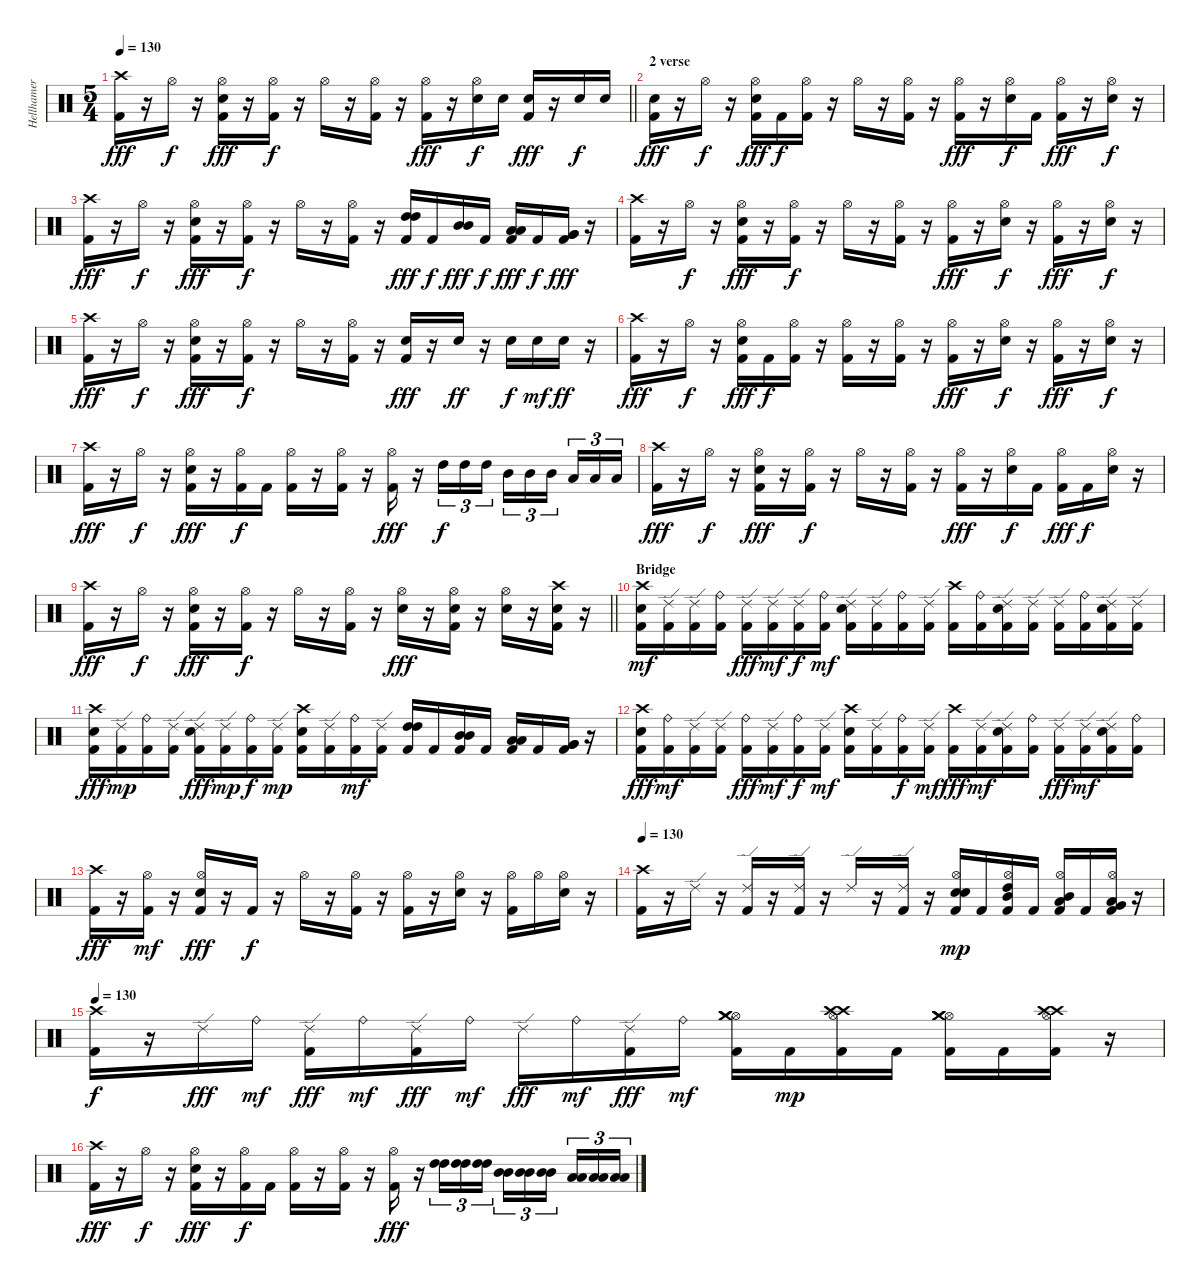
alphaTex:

\track ("Hellhamer" "Hellhamer") {instrument percussion}
\staff {score}
\articulation defaults
\ts (5 4)
\tempo 130
\clef neutral
\barLineRight lightlight
\ks c
("Crash high (hit)" "Kick (hit) 2").16{dy fff} r.16 "Hi-Hat (open)".16{dy f} r.16 ("Hi-Hat (open)" "Electric Snare (hit)" "Kick (hit) 2").16{dy fff} r.16 ("Hi-Hat (open)" "Kick (hit) 2").16{dy f} r.16 "Hi-Hat (open)".16 r.16 ("Hi-Hat (open)" "Kick (hit) 2").16 r.16 ("Hi-Hat (open)" "Kick (hit) 2").16{dy fff} r.16 ("Hi-Hat (open)" "Electric Snare (hit)").16{dy f} "Electric Snare (hit)".16 ("Electric Snare (hit)" "Kick (hit) 2").16{dy fff} r.16 "Electric Snare (hit)".16{dy f} "Electric Snare (hit)".16 |
\section ("" "2 verse")
("Electric Snare (hit)" "Kick (hit) 2").16{dy fff} r.16 "Hi-Hat (open)".16{dy f} r.16 ("Hi-Hat (open)" "Electric Snare (hit)" "Kick (hit) 2").16{dy fff} "Kick (hit) 2".16{dy f} ("Hi-Hat (open)" "Kick (hit) 2").16 r.16 "Hi-Hat (open)".16 r.16 ("Hi-Hat (open)" "Kick (hit) 2").16 r.16 ("Hi-Hat (open)" "Kick (hit) 2").16{dy fff} r.16 ("Hi-Hat (open)" "Electric Snare (hit)").16{dy f} "Kick (hit) 2".16 ("Hi-Hat (open)" "Kick (hit) 2").16{dy fff} r.16 ("Hi-Hat (open)" "Electric Snare (hit)").16{dy f} r.16 |
("Crash high (hit)" "Kick (hit) 2").16{dy fff} r.16 "Hi-Hat (open)".16{dy f} r.16 ("Hi-Hat (open)" "Electric Snare (hit)" "Kick (hit) 2").16{dy fff} r.16 ("Hi-Hat (open)" "Kick (hit) 2").16{dy f} r.16 "Hi-Hat (open)".16 r.16 ("Hi-Hat (open)" "Kick (hit) 2").16 r.16 ("High Tom (hit)" "High Tom (hit)" "Kick (hit) 2").16{dy fff} "Kick (hit) 2".16{dy f} ("Mid Tom (hit)" "Mid Tom (hit)").16{dy fff} "Kick (hit) 2".16{dy f} ("Low Tom (hit)" "Low Tom (hit)" "Kick (hit) 2").16{dy fff} "Kick (hit) 2".16{dy f} ("Very Low Tom (hit)" "Very Low Tom (hit)" "Kick (hit) 2").16{dy fff} r.16 |
("Crash high (hit)" "Kick (hit) 2").16 r.16 "Hi-Hat (open)".16{dy f} r.16 ("Hi-Hat (open)" "Electric Snare (hit)" "Kick (hit) 2").16{dy fff} r.16 ("Hi-Hat (open)" "Kick (hit) 2").16{dy f} r.16 "Hi-Hat (open)".16 r.16 ("Hi-Hat (open)" "Kick (hit) 2").16 r.16 ("Hi-Hat (open)" "Kick (hit) 2").16{dy fff} r.16 ("Hi-Hat (open)" "Electric Snare (hit)").16{dy f} r.16 ("Hi-Hat (open)" "Kick (hit) 2").16{dy fff} r.16 ("Hi-Hat (open)" "Electric Snare (hit)").16{dy f} r.16 |
("Crash high (hit)" "Kick (hit) 2").16{dy fff} r.16 "Hi-Hat (open)".16{dy f} r.16 ("Hi-Hat (open)" "Electric Snare (hit)" "Kick (hit) 2").16{dy fff} r.16 ("Hi-Hat (open)" "Kick (hit) 2").16{dy f} r.16 "Hi-Hat (open)".16 r.16 ("Hi-Hat (open)" "Kick (hit) 2").16 r.16 ("Electric Snare (hit)" "Kick (hit) 2").16{dy fff} r.16 "Electric Snare (hit)".16{dy ff} r.16 "Electric Snare (hit)".16{dy f} "Electric Snare (hit)".16{dy mf} "Electric Snare (hit)".16{dy ff} r.16 |
("Crash high (hit)" "Kick (hit) 2").16{dy fff} r.16 "Hi-Hat (open)".16{dy f} r.16 ("Hi-Hat (open)" "Electric Snare (hit)" "Kick (hit) 2").16{dy fff} "Kick (hit) 2".16{dy f} ("Hi-Hat (open)" "Kick (hit) 2").16 r.16 ("Hi-Hat (open)" "Kick (hit) 2").16 r.16 ("Hi-Hat (open)" "Kick (hit) 2").16 r.16 ("Hi-Hat (open)" "Kick (hit) 2").16{dy fff} r.16 ("Hi-Hat (open)" "Electric Snare (hit)").16{dy f} r.16 ("Hi-Hat (open)" "Kick (hit) 2").16{dy fff} r.16 ("Hi-Hat (open)" "Electric Snare (hit)").16{dy f} r.16 |
("Crash high (hit)" "Kick (hit) 2").16{dy fff} r.16 "Hi-Hat (open)".16{dy f} r.16 ("Hi-Hat (open)" "Electric Snare (hit)" "Kick (hit) 2").16{dy fff} r.16 ("Hi-Hat (open)" "Kick (hit) 2").16{dy f} "Kick (hit) 2".16 ("Hi-Hat (open)" "Kick (hit) 2").16 r.16 ("Hi-Hat (open)" "Kick (hit) 2").16 r.16 ("Hi-Hat (open)" "Kick (hit) 2").16{dy fff} r.16 "High Tom (hit)".16{tu (3 2) dy f} "High Tom (hit)".16{tu (3 2)} "High Tom (hit)".16{tu (3 2)} "Mid Tom (hit)".16{tu (3 2)} "Mid Tom (hit)".16{tu (3 2)} "Mid Tom (hit)".16{tu (3 2) beam splitsecondary} "Low Tom (hit)".16{tu (3 2)} "Low Tom (hit)".16{tu (3 2)} "Low Tom (hit)".16{tu (3 2)} |
("Crash high (hit)" "Kick (hit) 2").16{dy fff} r.16 "Hi-Hat (open)".16{dy f} r.16 ("Hi-Hat (open)" "Electric Snare (hit)" "Kick (hit) 2").16{dy fff} r.16 ("Hi-Hat (open)" "Kick (hit) 2").16{dy f} r.16 "Hi-Hat (open)".16 r.16 ("Hi-Hat (open)" "Kick (hit) 2").16 r.16 ("Hi-Hat (open)" "Kick (hit) 2").16{dy fff} r.16 ("Hi-Hat (open)" "Electric Snare (hit)").16{dy f} "Kick (hit) 2".16 ("Hi-Hat (open)" "Kick (hit) 2").16{dy fff} "Kick (hit) 2".16{dy f} ("Hi-Hat (open)" "Electric Snare (hit)").16 r.16 |
\barLineRight lightlight
("Crash high (hit)" "Kick (hit) 2").16{dy fff} r.16 "Hi-Hat (open)".16{dy f} r.16 ("Hi-Hat (open)" "Electric Snare (hit)" "Kick (hit) 2").16{dy fff} r.16 ("Hi-Hat (open)" "Kick (hit) 2").16{dy f} r.16 "Hi-Hat (open)".16 r.16 ("Hi-Hat (open)" "Kick (hit) 2").16 r.16 ("Hi-Hat (open)" "Electric Snare (hit)").16{dy fff} r.16 ("Hi-Hat (open)" "Electric Snare (hit)" "Kick (hit) 2").16 r.16 ("Hi-Hat (open)" "Electric Snare (hit)").16 r.16 ("Crash high (hit)" "Electric Snare (hit)" "Kick (hit) 2").16 r.16 |
\section ("" "Bridge")
("Crash high (hit)" "Electric Snare (hit)" "Kick (hit) 2").16{dy mf} ("Ride (edge) 2" "Kick (hit) 2").16 ("Ride (edge) 2" "Kick (hit) 2").16 ("Ride (bell)" "Kick (hit) 2").16 ("Ride (edge) 2" "Kick (hit) 2").16{dy fff} ("Ride (edge) 2" "Kick (hit) 2").16{dy mf} ("Ride (edge) 2" "Kick (hit) 2").16{dy f} ("Ride (bell)" "Kick (hit) 2").16{dy mf} ("Ride (edge) 2" "Electric Snare (hit)" "Kick (hit) 2").16 ("Ride (edge) 2" "Kick (hit) 2").16 ("Ride (bell)" "Kick (hit) 2").16 ("Ride (edge) 2" "Kick (hit) 2").16 ("Crash high (hit)" "Kick (hit) 2").16 ("Ride (bell)" "Kick (hit) 2").16 ("Ride (edge) 2" "Electric Snare (hit)" "Kick (hit) 2").16 ("Ride (edge) 2" "Kick (hit) 2").16 ("Ride (edge) 2" "Kick (hit) 2").16 ("Ride (bell)" "Kick (hit) 2").16 ("Ride (edge) 2" "Electric Snare (hit)" "Kick (hit) 2").16 ("Ride (edge) 2" "Kick (hit) 2").16 |
("Crash high (hit)" "Electric Snare (hit)" "Kick (hit) 2").16{dy fff} ("Ride (edge) 2" "Kick (hit) 2").16{dy mp} ("Ride (bell)" "Kick (hit) 2").16 ("Ride (edge) 2" "Kick (hit) 2").16 ("Ride (edge) 2" "Electric Snare (hit)" "Kick (hit) 2").16{dy fff} ("Ride (edge) 2" "Kick (hit) 2").16{dy mp} ("Ride (bell)" "Kick (hit) 2").16{dy f} ("Ride (edge) 2" "Kick (hit) 2").16{dy mp} ("Crash high (hit)" "Electric Snare (hit)" "Kick (hit) 2").16 ("Ride (edge) 2" "Kick (hit) 2").16 ("Ride (bell)" "Kick (hit) 2").16{dy mf} ("Ride (edge) 2" "Kick (hit) 2").16 ("High Tom (hit)" "High Tom (hit)" "Kick (hit) 2").16 "Kick (hit) 2".16 ("Mid Tom (hit)" "Mid Tom (hit)" "Kick (hit) 2").16 "Kick (hit) 2".16 ("Low Tom (hit)" "Low Tom (hit)" "Kick (hit) 2").16 "Kick (hit) 2".16 ("Very Low Tom (hit)" "Very Low Tom (hit)" "Kick (hit) 2").16 r.16 |
("Crash high (hit)" "Electric Snare (hit)" "Kick (hit) 2").16{dy fff} ("Ride (bell)" "Kick (hit) 2").16{dy mf} ("Ride (edge) 2" "Kick (hit) 2").16 ("Ride (edge) 2" "Kick (hit) 2").16 ("Ride (bell)" "Kick (hit) 2").16{dy fff} ("Ride (edge) 2" "Kick (hit) 2").16{dy mf} ("Ride (bell)" "Kick (hit) 2").16{dy f} ("Ride (edge) 2" "Kick (hit) 2").16{dy mf} ("Crash high (hit)" "Electric Snare (hit)" "Kick (hit) 2").16 ("Ride (edge) 2" "Kick (hit) 2").16 ("Ride (bell)" "Kick (hit) 2").16{dy f} ("Ride (edge) 2" "Kick (hit) 2").16{dy mf} ("Crash high (hit)" "Kick (hit) 2").16{dy fff} ("Ride (edge) 2" "Kick (hit) 2").16{dy mf} ("Ride (edge) 2" "Electric Snare (hit)" "Kick (hit) 2").16 ("Ride (bell)" "Kick (hit) 2").16 ("Ride (edge) 2" "Kick (hit) 2").16{dy fff} ("Ride (edge) 2" "Kick (hit) 2").16{dy mf} ("Ride (edge) 2" "Electric Snare (hit)" "Kick (hit) 2").16 ("Ride (bell)" "Kick (hit) 2").16 |
("Crash high (hit)" "Kick (hit) 2").16{dy fff} r.16 ("Hi-Hat (open)" "Kick (hit) 2").16{dy mf} r.16 ("Hi-Hat (open)" "Electric Snare (hit)" "Kick (hit) 2").16{dy fff} r.16 "Kick (hit) 2".16{dy f} r.16 "Hi-Hat (open)".16 r.16 ("Hi-Hat (open)" "Kick (hit) 2").16 r.16 ("Hi-Hat (open)" "Kick (hit) 2").16 r.16 ("Hi-Hat (open)" "Electric Snare (hit)").16 r.16 ("Hi-Hat (open)" "Kick (hit) 2").16 "Hi-Hat (open)".16 ("Hi-Hat (open)" "Electric Snare (hit)").16 r.16 |
\tempo 130
("Crash high (hit)" "Kick (hit) 2").16 r.16 "Ride (edge) 2".16 r.16 ("Ride (edge) 2" "Kick (hit) 2").16 r.16 ("Ride (edge) 2" "Kick (hit) 2").16 r.16 "Ride (edge) 2".16 r.16 ("Ride (edge) 2" "Kick (hit) 2").16 r.16 ("Electric Snare (hit)" "Electric Snare (hit)" "Hi-Hat (open)" "Kick (hit) 2").16{dy mp} "Kick (hit) 2".16 ("High Tom (hit)" "Mid Tom (hit)" "Hi-Hat (open)" "Kick (hit) 2").16 "Kick (hit) 2".16 ("Mid Tom (hit)" "Low Tom (hit)" "Hi-Hat (open)" "Kick (hit) 2").16 "Kick (hit) 2".16 ("Low Tom (hit)" "Very Low Tom (hit)" "Hi-Hat (open)" "Kick (hit) 2").16 r.16 |
\tempo 130
("Crash high (hit)" "Kick (hit) 2").16{dy f} r.16 "Ride (edge) 2".16{dy fff} "Ride (bell)".16{dy mf} ("Ride (edge) 2" "Kick (hit) 2").16{dy fff} "Ride (bell)".16{dy mf} ("Ride (edge) 2" "Kick (hit) 2").16{dy fff} "Ride (bell)".16{dy mf} "Ride (edge) 2".16{dy fff} "Ride (bell)".16{dy mf} ("Ride (edge) 2" "Kick (hit) 2").16{dy fff} "Ride (bell)".16{dy mf} ("Hi-Hat (open)" "Crash medium (hit)" "Crash medium (hit)" "Kick (hit) 2").16 "Kick (hit) 2".16{dy mp} ("Hi-Hat (open)" "Crash high (hit)" "Crash high (hit)" "Kick (hit) 2").16 "Kick (hit) 2".16 ("Hi-Hat (open)" "Crash medium (hit)" "Crash medium (hit)" "Kick (hit) 2").16 "Kick (hit) 2".16 ("Hi-Hat (open)" "Crash high (hit)" "Crash high (hit)" "Kick (hit) 2").16 r.16 |
("Crash high (hit)" "Kick (hit) 2").16{dy fff} r.16 "Hi-Hat (open)".16{dy f} r.16 ("Hi-Hat (open)" "Electric Snare (hit)" "Kick (hit) 2").16{dy fff} r.16 ("Hi-Hat (open)" "Kick (hit) 2").16{dy f} "Kick (hit) 2".16 ("Hi-Hat (open)" "Kick (hit) 2").16 r.16 ("Hi-Hat (open)" "Kick (hit) 2").16 r.16 ("Hi-Hat (open)" "Kick (hit) 2").16{dy fff} r.16 ("High Tom (hit)" "High Tom (hit)").16{tu (3 2)} ("High Tom (hit)" "High Tom (hit)").16{tu (3 2)} ("High Tom (hit)" "High Tom (hit)").16{tu (3 2)} ("Mid Tom (hit)" "Mid Tom (hit)").16{tu (3 2)} ("Mid Tom (hit)" "Mid Tom (hit)").16{tu (3 2)} ("Mid Tom (hit)" "Mid Tom (hit)").16{tu (3 2) beam splitsecondary} ("Low Tom (hit)" "Low Tom (hit)").16{tu (3 2)} ("Low Tom (hit)" "Low Tom (hit)").16{tu (3 2)} ("Low Tom (hit)" "Low Tom (hit)").16{tu (3 2)}
